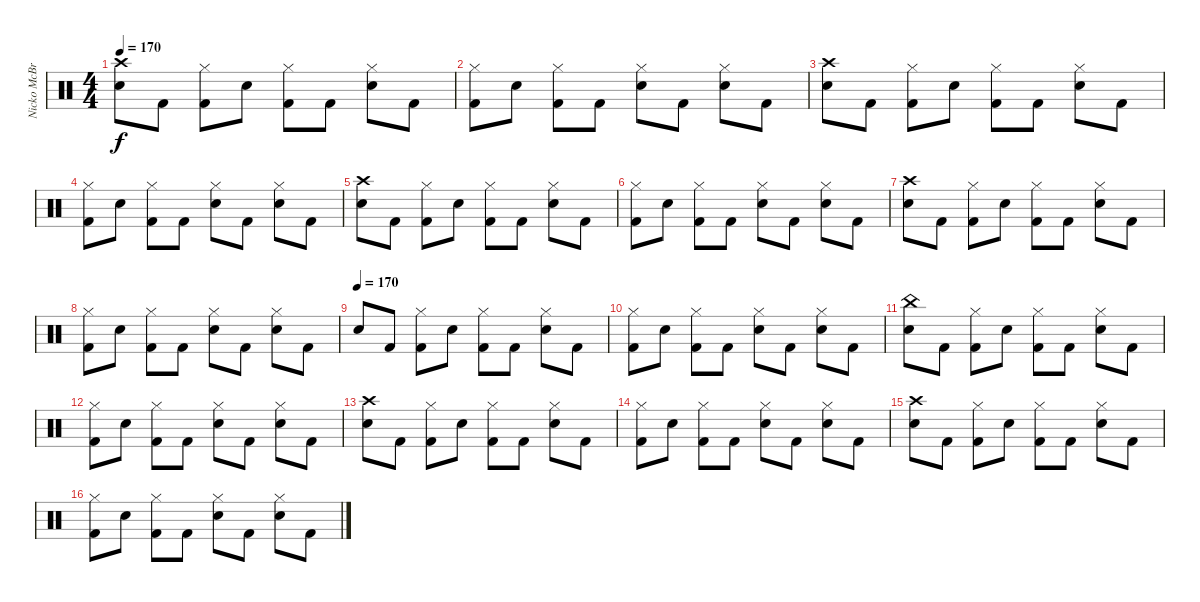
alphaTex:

\track ("Nicko McBrain" "Nicko McBr") {instrument percussion}
\staff {score}
\articulation defaults
\ts (4 4)
\tempo 170
\clef neutral
\ks c
("Crash high (hit)" "Snare (hit) 2").8{dy f} "Kick (hit) 2".8 ("Hi-Hat (closed)" "Kick (hit) 2").8 "Snare (hit) 2".8 ("Hi-Hat (closed)" "Kick (hit) 2").8 "Kick (hit) 2".8 ("Hi-Hat (closed)" "Snare (hit) 2").8 "Kick (hit) 2".8 |
("Hi-Hat (closed)" "Kick (hit) 2").8 "Snare (hit) 2".8 ("Hi-Hat (closed)" "Kick (hit) 2").8 "Kick (hit) 2".8 ("Hi-Hat (closed)" "Snare (hit) 2").8 "Kick (hit) 2".8 ("Hi-Hat (closed)" "Snare (hit) 2").8 "Kick (hit) 2".8 |
("Crash high (hit)" "Snare (hit) 2").8 "Kick (hit) 2".8 ("Hi-Hat (closed)" "Kick (hit) 2").8 "Snare (hit) 2".8 ("Hi-Hat (closed)" "Kick (hit) 2").8 "Kick (hit) 2".8 ("Hi-Hat (closed)" "Snare (hit) 2").8 "Kick (hit) 2".8 |
("Hi-Hat (closed)" "Kick (hit) 2").8 "Snare (hit) 2".8 ("Hi-Hat (closed)" "Kick (hit) 2").8 "Kick (hit) 2".8 ("Hi-Hat (closed)" "Snare (hit) 2").8 "Kick (hit) 2".8 ("Hi-Hat (closed)" "Snare (hit) 2").8 "Kick (hit) 2".8 |
("Crash high (hit)" "Snare (hit) 2").8 "Kick (hit) 2".8 ("Hi-Hat (closed)" "Kick (hit) 2").8 "Snare (hit) 2".8 ("Hi-Hat (closed)" "Kick (hit) 2").8 "Kick (hit) 2".8 ("Hi-Hat (closed)" "Snare (hit) 2").8 "Kick (hit) 2".8 |
("Hi-Hat (closed)" "Kick (hit) 2").8 "Snare (hit) 2".8 ("Hi-Hat (closed)" "Kick (hit) 2").8 "Kick (hit) 2".8 ("Hi-Hat (closed)" "Snare (hit) 2").8 "Kick (hit) 2".8 ("Hi-Hat (closed)" "Snare (hit) 2").8 "Kick (hit) 2".8 |
("Crash high (hit)" "Snare (hit) 2").8 "Kick (hit) 2".8 ("Hi-Hat (closed)" "Kick (hit) 2").8 "Snare (hit) 2".8 ("Hi-Hat (closed)" "Kick (hit) 2").8 "Kick (hit) 2".8 ("Hi-Hat (closed)" "Snare (hit) 2").8 "Kick (hit) 2".8 |
("Hi-Hat (closed)" "Kick (hit) 2").8 "Snare (hit) 2".8 ("Hi-Hat (closed)" "Kick (hit) 2").8 "Kick (hit) 2".8 ("Hi-Hat (closed)" "Snare (hit) 2").8 "Kick (hit) 2".8 ("Hi-Hat (closed)" "Snare (hit) 2").8 "Kick (hit) 2".8 |
\tempo 180
\tempo (170)
"Snare (hit) 2".8 "Kick (hit) 2".8 ("Hi-Hat (closed)" "Kick (hit) 2").8 "Snare (hit) 2".8 ("Hi-Hat (closed)" "Kick (hit) 2").8 "Kick (hit) 2".8 ("Hi-Hat (closed)" "Snare (hit) 2").8 "Kick (hit) 2".8 |
("Hi-Hat (closed)" "Kick (hit) 2").8 "Snare (hit) 2".8 ("Hi-Hat (closed)" "Kick (hit) 2").8 "Kick (hit) 2".8 ("Hi-Hat (closed)" "Snare (hit) 2").8 "Kick (hit) 2".8 ("Hi-Hat (closed)" "Snare (hit) 2").8 "Kick (hit) 2".8 |
("China (hit)" "Snare (hit) 2").8 "Kick (hit) 2".8 ("Hi-Hat (closed)" "Kick (hit) 2").8 "Snare (hit) 2".8 ("Hi-Hat (closed)" "Kick (hit) 2").8 "Kick (hit) 2".8 ("Hi-Hat (closed)" "Snare (hit) 2").8 "Kick (hit) 2".8 |
("Hi-Hat (closed)" "Kick (hit) 2").8 "Snare (hit) 2".8 ("Hi-Hat (closed)" "Kick (hit) 2").8 "Kick (hit) 2".8 ("Hi-Hat (closed)" "Snare (hit) 2").8 "Kick (hit) 2".8 ("Hi-Hat (closed)" "Snare (hit) 2").8 "Kick (hit) 2".8 |
("Crash high (hit)" "Snare (hit) 2").8 "Kick (hit) 2".8 ("Hi-Hat (closed)" "Kick (hit) 2").8 "Snare (hit) 2".8 ("Hi-Hat (closed)" "Kick (hit) 2").8 "Kick (hit) 2".8 ("Hi-Hat (closed)" "Snare (hit) 2").8 "Kick (hit) 2".8 |
("Hi-Hat (closed)" "Kick (hit) 2").8 "Snare (hit) 2".8 ("Hi-Hat (closed)" "Kick (hit) 2").8 "Kick (hit) 2".8 ("Hi-Hat (closed)" "Snare (hit) 2").8 "Kick (hit) 2".8 ("Hi-Hat (closed)" "Snare (hit) 2").8 "Kick (hit) 2".8 |
("Crash high (hit)" "Snare (hit) 2").8 "Kick (hit) 2".8 ("Hi-Hat (closed)" "Kick (hit) 2").8 "Snare (hit) 2".8 ("Hi-Hat (closed)" "Kick (hit) 2").8 "Kick (hit) 2".8 ("Hi-Hat (closed)" "Snare (hit) 2").8 "Kick (hit) 2".8 |
("Hi-Hat (closed)" "Kick (hit) 2").8 "Snare (hit) 2".8 ("Hi-Hat (closed)" "Kick (hit) 2").8 "Kick (hit) 2".8 ("Hi-Hat (closed)" "Snare (hit) 2").8 "Kick (hit) 2".8 ("Hi-Hat (closed)" "Snare (hit) 2").8 "Kick (hit) 2".8
